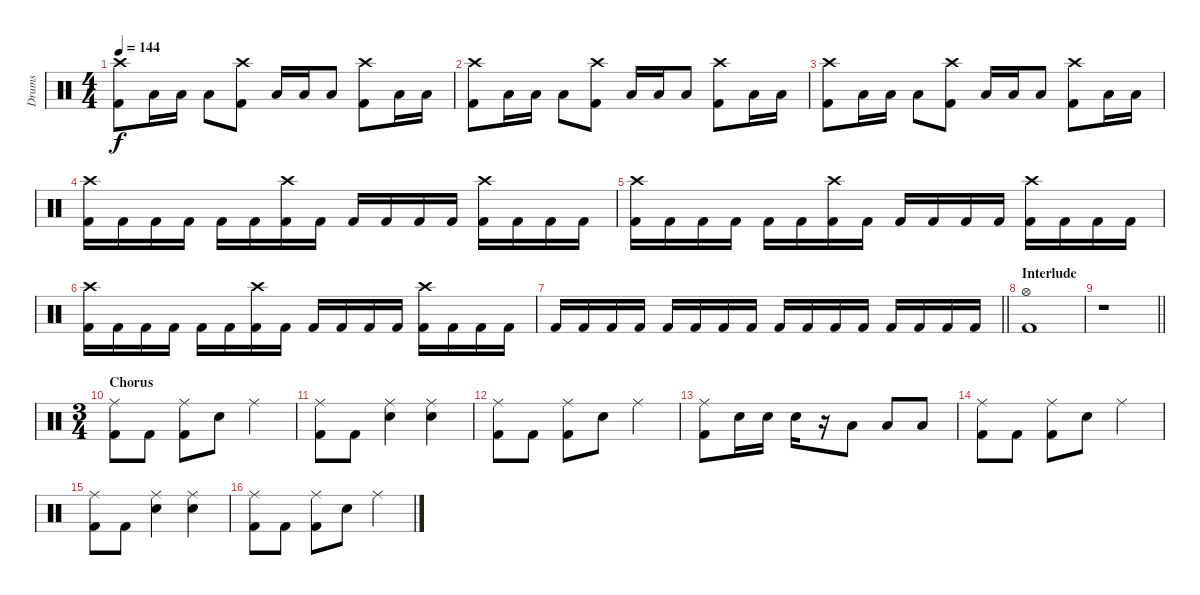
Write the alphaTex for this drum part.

\track ("Drums" "Drums") {instrument percussion}
\staff {score}
\articulation defaults
\ts (4 4)
\tempo 144
\clef neutral
\ks c
("Crash high (hit)" "Kick (hit) 2").8{dy f} "Low Tom (hit)".16 "Low Tom (hit)".16 "Low Tom (hit)".8 ("Crash high (hit)" "Kick (hit) 2").8 "Low Tom (hit)".16 "Low Tom (hit)".16 "Low Tom (hit)".8 ("Crash high (hit)" "Kick (hit) 2").8 "Low Tom (hit)".16 "Low Tom (hit)".16 |
("Crash high (hit)" "Kick (hit) 2").8 "Low Tom (hit)".16 "Low Tom (hit)".16 "Low Tom (hit)".8 ("Crash high (hit)" "Kick (hit) 2").8 "Low Tom (hit)".16 "Low Tom (hit)".16 "Low Tom (hit)".8 ("Crash high (hit)" "Kick (hit) 2").8 "Low Tom (hit)".16 "Low Tom (hit)".16 |
("Crash high (hit)" "Kick (hit) 2").8 "Low Tom (hit)".16 "Low Tom (hit)".16 "Low Tom (hit)".8 ("Crash high (hit)" "Kick (hit) 2").8 "Low Tom (hit)".16 "Low Tom (hit)".16 "Low Tom (hit)".8 ("Crash high (hit)" "Kick (hit) 2").8 "Low Tom (hit)".16 "Low Tom (hit)".16 |
("Crash high (hit)" "Kick (hit) 2").16 "Kick (hit) 2".16 "Kick (hit) 2".16 "Kick (hit) 2".16 "Kick (hit) 2".16 "Kick (hit) 2".16 ("Crash high (hit)" "Kick (hit) 2").16 "Kick (hit) 2".16 "Kick (hit) 2".16 "Kick (hit) 2".16 "Kick (hit) 2".16 "Kick (hit) 2".16 ("Crash high (hit)" "Kick (hit) 2").16 "Kick (hit) 2".16 "Kick (hit) 2".16 "Kick (hit) 2".16 |
("Crash high (hit)" "Kick (hit) 2").16 "Kick (hit) 2".16 "Kick (hit) 2".16 "Kick (hit) 2".16 "Kick (hit) 2".16 "Kick (hit) 2".16 ("Crash high (hit)" "Kick (hit) 2").16 "Kick (hit) 2".16 "Kick (hit) 2".16 "Kick (hit) 2".16 "Kick (hit) 2".16 "Kick (hit) 2".16 ("Crash high (hit)" "Kick (hit) 2").16 "Kick (hit) 2".16 "Kick (hit) 2".16 "Kick (hit) 2".16 |
("Crash high (hit)" "Kick (hit) 2").16 "Kick (hit) 2".16 "Kick (hit) 2".16 "Kick (hit) 2".16 "Kick (hit) 2".16 "Kick (hit) 2".16 ("Crash high (hit)" "Kick (hit) 2").16 "Kick (hit) 2".16 "Kick (hit) 2".16 "Kick (hit) 2".16 "Kick (hit) 2".16 "Kick (hit) 2".16 ("Crash high (hit)" "Kick (hit) 2").16 "Kick (hit) 2".16 "Kick (hit) 2".16 "Kick (hit) 2".16 |
\barLineRight lightlight "Kick (hit) 2".16 "Kick (hit) 2".16 "Kick (hit) 2".16 "Kick (hit) 2".16 "Kick (hit) 2".16 "Kick (hit) 2".16 "Kick (hit) 2".16 "Kick (hit) 2".16 "Kick (hit) 2".16 "Kick (hit) 2".16 "Kick (hit) 2".16 "Kick (hit) 2".16 "Kick (hit) 2".16 "Kick (hit) 2".16 "Kick (hit) 2".16 "Kick (hit) 2".16
|
\section ("" "Interlude")
("Hi-Hat (open)" "Kick (hit) 2").1 |
\barLineRight lightlight
r.1 |
\ts (3 4)
\section ("" "Chorus")
("Ride (middle)" "Kick (hit) 2").8 "Kick (hit) 2".8 ("Ride (middle)" "Kick (hit) 2").8 "Snare (hit) 2".8 "Ride (middle)".4 |
("Ride (middle)" "Kick (hit) 2").8 "Kick (hit) 2".8 ("Ride (middle)" "Snare (hit) 2").4 ("Ride (middle)" "Snare (hit) 2").4 |
("Ride (middle)" "Kick (hit) 2").8 "Kick (hit) 2".8 ("Ride (middle)" "Kick (hit) 2").8 "Snare (hit) 2".8 "Ride (middle)".4 |
("Ride (middle)" "Kick (hit) 2").8 "Snare (hit) 2".16 "Snare (hit) 2".16 "Snare (hit) 2".16 r.16 "Low Tom (hit)".8 "Low Tom (hit)".8 "Low Tom (hit)".8 |
("Ride (middle)" "Kick (hit) 2").8 "Kick (hit) 2".8 ("Ride (middle)" "Kick (hit) 2").8 "Snare (hit) 2".8 "Ride (middle)".4 |
("Ride (middle)" "Kick (hit) 2").8 "Kick (hit) 2".8 ("Ride (middle)" "Snare (hit) 2").4 ("Ride (middle)" "Snare (hit) 2").4 |
("Ride (middle)" "Kick (hit) 2").8 "Kick (hit) 2".8 ("Ride (middle)" "Kick (hit) 2").8 "Snare (hit) 2".8 "Ride (middle)".4
